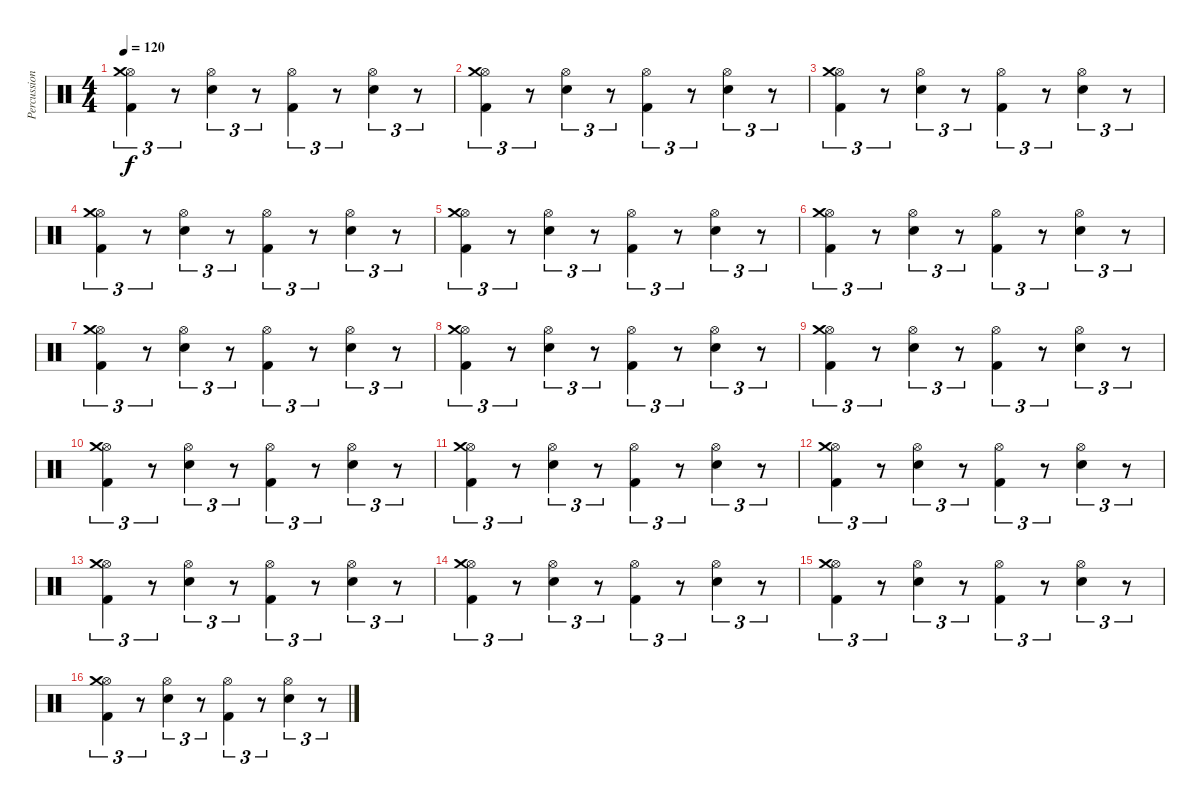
\track ("Percussioni" "Percussion") {instrument percussion}
\staff {score}
\articulation defaults
\ts (4 4)
\tempo 120
\clef neutral
\ks c
("Kick (hit) 2" "Hi-Hat (open)" "Crash medium (hit)").4{tu (3 2) dy f} r.8{tu (3 2)} ("Electric Snare (hit)" "Hi-Hat (open)").4{tu (3 2)} r.8{tu (3 2)} ("Kick (hit) 2" "Hi-Hat (open)").4{tu (3 2)} r.8{tu (3 2)} ("Electric Snare (hit)" "Hi-Hat (open)").4{tu (3 2)} r.8{tu (3 2)} |
("Kick (hit) 2" "Hi-Hat (open)" "Crash medium (hit)").4{tu (3 2)} r.8{tu (3 2)} ("Electric Snare (hit)" "Hi-Hat (open)").4{tu (3 2)} r.8{tu (3 2)} ("Kick (hit) 2" "Hi-Hat (open)").4{tu (3 2)} r.8{tu (3 2)} ("Electric Snare (hit)" "Hi-Hat (open)").4{tu (3 2)} r.8{tu (3 2)} |
("Kick (hit) 2" "Hi-Hat (open)" "Crash medium (hit)").4{tu (3 2)} r.8{tu (3 2)} ("Electric Snare (hit)" "Hi-Hat (open)").4{tu (3 2)} r.8{tu (3 2)} ("Kick (hit) 2" "Hi-Hat (open)").4{tu (3 2)} r.8{tu (3 2)} ("Electric Snare (hit)" "Hi-Hat (open)").4{tu (3 2)} r.8{tu (3 2)} |
("Kick (hit) 2" "Hi-Hat (open)" "Crash medium (hit)").4{tu (3 2)} r.8{tu (3 2)} ("Electric Snare (hit)" "Hi-Hat (open)").4{tu (3 2)} r.8{tu (3 2)} ("Kick (hit) 2" "Hi-Hat (open)").4{tu (3 2)} r.8{tu (3 2)} ("Electric Snare (hit)" "Hi-Hat (open)").4{tu (3 2)} r.8{tu (3 2)} |
("Kick (hit) 2" "Hi-Hat (open)" "Crash medium (hit)").4{tu (3 2)} r.8{tu (3 2)} ("Electric Snare (hit)" "Hi-Hat (open)").4{tu (3 2)} r.8{tu (3 2)} ("Kick (hit) 2" "Hi-Hat (open)").4{tu (3 2)} r.8{tu (3 2)} ("Electric Snare (hit)" "Hi-Hat (open)").4{tu (3 2)} r.8{tu (3 2)} |
("Kick (hit) 2" "Hi-Hat (open)" "Crash medium (hit)").4{tu (3 2)} r.8{tu (3 2)} ("Electric Snare (hit)" "Hi-Hat (open)").4{tu (3 2)} r.8{tu (3 2)} ("Kick (hit) 2" "Hi-Hat (open)").4{tu (3 2)} r.8{tu (3 2)} ("Electric Snare (hit)" "Hi-Hat (open)").4{tu (3 2)} r.8{tu (3 2)} |
("Kick (hit) 2" "Hi-Hat (open)" "Crash medium (hit)").4{tu (3 2)} r.8{tu (3 2)} ("Electric Snare (hit)" "Hi-Hat (open)").4{tu (3 2)} r.8{tu (3 2)} ("Kick (hit) 2" "Hi-Hat (open)").4{tu (3 2)} r.8{tu (3 2)} ("Electric Snare (hit)" "Hi-Hat (open)").4{tu (3 2)} r.8{tu (3 2)} |
("Kick (hit) 2" "Hi-Hat (open)" "Crash medium (hit)").4{tu (3 2)} r.8{tu (3 2)} ("Electric Snare (hit)" "Hi-Hat (open)").4{tu (3 2)} r.8{tu (3 2)} ("Kick (hit) 2" "Hi-Hat (open)").4{tu (3 2)} r.8{tu (3 2)} ("Electric Snare (hit)" "Hi-Hat (open)").4{tu (3 2)} r.8{tu (3 2)} |
("Kick (hit) 2" "Hi-Hat (open)" "Crash medium (hit)").4{tu (3 2)} r.8{tu (3 2)} ("Electric Snare (hit)" "Hi-Hat (open)").4{tu (3 2)} r.8{tu (3 2)} ("Kick (hit) 2" "Hi-Hat (open)").4{tu (3 2)} r.8{tu (3 2)} ("Electric Snare (hit)" "Hi-Hat (open)").4{tu (3 2)} r.8{tu (3 2)} |
("Kick (hit) 2" "Hi-Hat (open)" "Crash medium (hit)").4{tu (3 2)} r.8{tu (3 2)} ("Electric Snare (hit)" "Hi-Hat (open)").4{tu (3 2)} r.8{tu (3 2)} ("Kick (hit) 2" "Hi-Hat (open)").4{tu (3 2)} r.8{tu (3 2)} ("Electric Snare (hit)" "Hi-Hat (open)").4{tu (3 2)} r.8{tu (3 2)} |
("Kick (hit) 2" "Hi-Hat (open)" "Crash medium (hit)").4{tu (3 2)} r.8{tu (3 2)} ("Electric Snare (hit)" "Hi-Hat (open)").4{tu (3 2)} r.8{tu (3 2)} ("Kick (hit) 2" "Hi-Hat (open)").4{tu (3 2)} r.8{tu (3 2)} ("Electric Snare (hit)" "Hi-Hat (open)").4{tu (3 2)} r.8{tu (3 2)} |
("Kick (hit) 2" "Hi-Hat (open)" "Crash medium (hit)").4{tu (3 2)} r.8{tu (3 2)} ("Electric Snare (hit)" "Hi-Hat (open)").4{tu (3 2)} r.8{tu (3 2)} ("Kick (hit) 2" "Hi-Hat (open)").4{tu (3 2)} r.8{tu (3 2)} ("Electric Snare (hit)" "Hi-Hat (open)").4{tu (3 2)} r.8{tu (3 2)} |
("Kick (hit) 2" "Hi-Hat (open)" "Crash medium (hit)").4{tu (3 2)} r.8{tu (3 2)} ("Electric Snare (hit)" "Hi-Hat (open)").4{tu (3 2)} r.8{tu (3 2)} ("Kick (hit) 2" "Hi-Hat (open)").4{tu (3 2)} r.8{tu (3 2)} ("Electric Snare (hit)" "Hi-Hat (open)").4{tu (3 2)} r.8{tu (3 2)} |
("Kick (hit) 2" "Hi-Hat (open)" "Crash medium (hit)").4{tu (3 2)} r.8{tu (3 2)} ("Electric Snare (hit)" "Hi-Hat (open)").4{tu (3 2)} r.8{tu (3 2)} ("Kick (hit) 2" "Hi-Hat (open)").4{tu (3 2)} r.8{tu (3 2)} ("Electric Snare (hit)" "Hi-Hat (open)").4{tu (3 2)} r.8{tu (3 2)} |
("Kick (hit) 2" "Hi-Hat (open)" "Crash medium (hit)").4{tu (3 2)} r.8{tu (3 2)} ("Electric Snare (hit)" "Hi-Hat (open)").4{tu (3 2)} r.8{tu (3 2)} ("Kick (hit) 2" "Hi-Hat (open)").4{tu (3 2)} r.8{tu (3 2)} ("Electric Snare (hit)" "Hi-Hat (open)").4{tu (3 2)} r.8{tu (3 2)} |
("Kick (hit) 2" "Hi-Hat (open)" "Crash medium (hit)").4{tu (3 2)} r.8{tu (3 2)} ("Electric Snare (hit)" "Hi-Hat (open)").4{tu (3 2)} r.8{tu (3 2)} ("Kick (hit) 2" "Hi-Hat (open)").4{tu (3 2)} r.8{tu (3 2)} ("Electric Snare (hit)" "Hi-Hat (open)").4{tu (3 2)} r.8{tu (3 2)}
